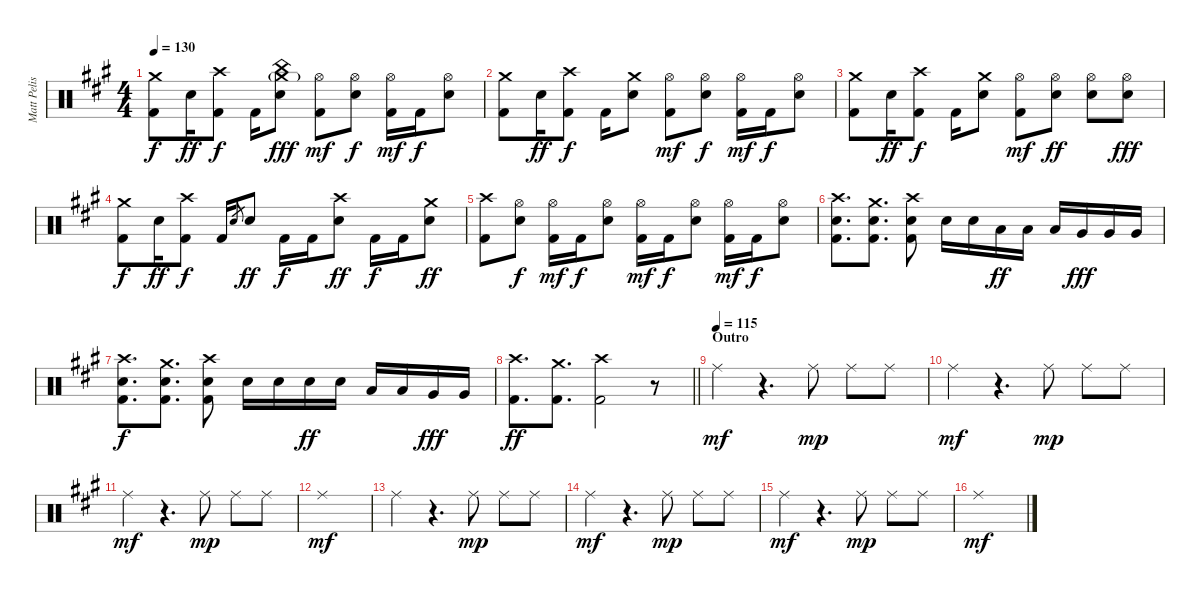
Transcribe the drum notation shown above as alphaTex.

\track ("Matt Pelissier" "Matt Pelis") {instrument percussion}
\staff {score}
\articulation defaults
\ts (4 4)
\tempo 130
\clef neutral
\ks a
("Crash medium (hit)" "Kick (hit) 2").8{dy f} "Snare (hit) 2".16{dy ff} ("Crash high (hit)" "Kick (hit) 2").8{dy f} "Kick (hit) 2".16 ("Crash medium (hit)"{g} "China (hit)" "Snare (hit) 2").8{dy fff} ("Hi-Hat (open)" "Kick (hit) 2").8{dy mf} ("Hi-Hat (open)" "Snare (hit) 2").8{dy f} ("Hi-Hat (open)" "Kick (hit) 2").16{dy mf} "Kick (hit) 2".16{dy f} ("Hi-Hat (open)" "Snare (hit) 2").8 |
("Crash medium (hit)" "Kick (hit) 2").8 "Snare (hit) 2".16{dy ff} ("Crash high (hit)" "Kick (hit) 2").8{dy f} "Kick (hit) 2".16 ("Crash medium (hit)" "Snare (hit) 2").8 ("Hi-Hat (open)" "Kick (hit) 2").8{dy mf} ("Hi-Hat (open)" "Snare (hit) 2").8{dy f} ("Hi-Hat (open)" "Kick (hit) 2").16{dy mf} "Kick (hit) 2".16{dy f} ("Hi-Hat (open)" "Snare (hit) 2").8 |
("Crash medium (hit)" "Kick (hit) 2").8 "Snare (hit) 2".16{dy ff} ("Crash high (hit)" "Kick (hit) 2").8{dy f} "Kick (hit) 2".16 ("Crash medium (hit)" "Snare (hit) 2").8 ("Hi-Hat (open)" "Kick (hit) 2").8{dy mf} ("Hi-Hat (open)" "Snare (hit) 2").8{dy ff} ("Hi-Hat (open)" "Snare (hit) 2").8 ("Hi-Hat (open)" "Snare (hit) 2").8{dy fff} |
("Crash medium (hit)" "Kick (hit) 2").8{dy f} "Snare (hit) 2".16{dy ff} ("Crash high (hit)" "Kick (hit) 2").8{dy f} "Kick (hit) 2".16 "Snare (hit) 2".8{gr} "Snare (hit) 2".8{dy ff} "Kick (hit) 2".16{dy f} "Kick (hit) 2".16 ("Crash high (hit)" "Snare (hit) 2").8{dy ff} "Kick (hit) 2".16{dy f} "Kick (hit) 2".16 ("Crash medium (hit)" "Snare (hit) 2").8{dy ff} |
("Crash high (hit)" "Kick (hit) 2").8 ("Hi-Hat (open)" "Snare (hit) 2").8{dy f} ("Hi-Hat (open)" "Kick (hit) 2").16{dy mf} "Kick (hit) 2".16{dy f} ("Hi-Hat (open)" "Snare (hit) 2").8 ("Hi-Hat (open)" "Kick (hit) 2").16{dy mf} "Kick (hit) 2".16{dy f} ("Hi-Hat (open)" "Snare (hit) 2").8 ("Hi-Hat (open)" "Kick (hit) 2").16{dy mf} "Kick (hit) 2".16{dy f} ("Hi-Hat (open)" "Snare (hit) 2").8 |
("Crash high (hit)" "Snare (hit) 2" "Kick (hit) 2").8{d} ("Crash medium (hit)" "Snare (hit) 2" "Kick (hit) 2").8{d} ("Crash high (hit)" "Snare (hit) 2" "Kick (hit) 2").8 "Snare (hit) 2".16 "Snare (hit) 2".16 "Low Tom (hit)".16{dy ff} "Low Tom (hit)".16 "Low Tom (hit)".16 "Very Low Tom (hit)".16{dy fff} "Very Low Tom (hit)".16 "Very Low Tom (hit)".16 |
("Crash high (hit)" "Snare (hit) 2" "Kick (hit) 2").8{d dy f} ("Crash medium (hit)" "Snare (hit) 2" "Kick (hit) 2").8{d} ("Crash high (hit)" "Snare (hit) 2" "Kick (hit) 2").8 "Snare (hit) 2".16 "Snare (hit) 2".16 "Snare (hit) 2".16{dy ff} "Snare (hit) 2".16 "Low Tom (hit)".16 "Low Tom (hit)".16 "Very Low Tom (hit)".16{dy fff} "Very Low Tom (hit)".16 |
\barLineRight lightlight
("Crash high (hit)" "Kick (hit) 2").8{d dy ff} ("Crash medium (hit)" "Kick (hit) 2").8{d} ("Crash high (hit)" "Kick (hit) 2").2 r.8 |
\section ("" "Outro")
\tempo (115)
"Ride (middle)".4{dy mf} r.4{d} "Ride (middle)".8{dy mp} "Ride (middle)".8 "Ride (middle)".8 |
"Ride (middle)".4{dy mf} r.4{d} "Ride (middle)".8{dy mp} "Ride (middle)".8 "Ride (middle)".8 |
"Ride (middle)".4{dy mf} r.4{d} "Ride (middle)".8{dy mp} "Ride (middle)".8 "Ride (middle)".8 |
"Ride (middle)".1{dy mf} |
"Ride (middle)".4 r.4{d} "Ride (middle)".8{dy mp} "Ride (middle)".8 "Ride (middle)".8 |
"Ride (middle)".4{dy mf} r.4{d} "Ride (middle)".8{dy mp} "Ride (middle)".8 "Ride (middle)".8 |
"Ride (middle)".4{dy mf} r.4{d} "Ride (middle)".8{dy mp} "Ride (middle)".8 "Ride (middle)".8 |
"Ride (middle)".1{dy mf}
